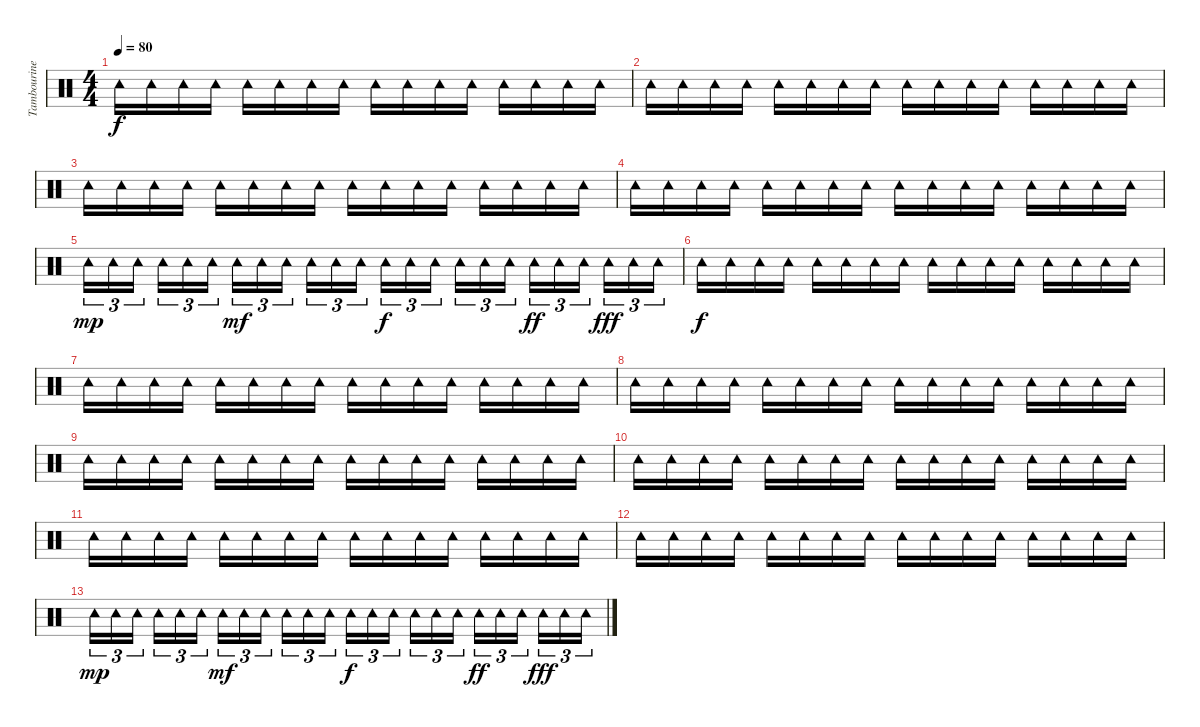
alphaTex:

\track ("Tambourine" "Tambourine") {instrument percussion}
\staff {score}
\articulation defaults
\ts (4 4)
\tempo 80
\clef neutral
\ks c "Tambourine (hit)".16{dy f} "Tambourine (hit)".16 "Tambourine (hit)".16 "Tambourine (hit)".16 "Tambourine (hit)".16 "Tambourine (hit)".16 "Tambourine (hit)".16 "Tambourine (hit)".16 "Tambourine (hit)".16 "Tambourine (hit)".16 "Tambourine (hit)".16 "Tambourine (hit)".16 "Tambourine (hit)".16 "Tambourine (hit)".16 "Tambourine (hit)".16 "Tambourine (hit)".16
|
"Tambourine (hit)".16 "Tambourine (hit)".16 "Tambourine (hit)".16 "Tambourine (hit)".16 "Tambourine (hit)".16 "Tambourine (hit)".16 "Tambourine (hit)".16 "Tambourine (hit)".16 "Tambourine (hit)".16 "Tambourine (hit)".16 "Tambourine (hit)".16 "Tambourine (hit)".16 "Tambourine (hit)".16 "Tambourine (hit)".16 "Tambourine (hit)".16 "Tambourine (hit)".16 |
"Tambourine (hit)".16 "Tambourine (hit)".16 "Tambourine (hit)".16 "Tambourine (hit)".16 "Tambourine (hit)".16 "Tambourine (hit)".16 "Tambourine (hit)".16 "Tambourine (hit)".16 "Tambourine (hit)".16 "Tambourine (hit)".16 "Tambourine (hit)".16 "Tambourine (hit)".16 "Tambourine (hit)".16 "Tambourine (hit)".16 "Tambourine (hit)".16 "Tambourine (hit)".16 |
"Tambourine (hit)".16 "Tambourine (hit)".16 "Tambourine (hit)".16 "Tambourine (hit)".16 "Tambourine (hit)".16 "Tambourine (hit)".16 "Tambourine (hit)".16 "Tambourine (hit)".16 "Tambourine (hit)".16 "Tambourine (hit)".16 "Tambourine (hit)".16 "Tambourine (hit)".16 "Tambourine (hit)".16 "Tambourine (hit)".16 "Tambourine (hit)".16 "Tambourine (hit)".16 |
"Tambourine (hit)".16{tu (3 2) dy mp} "Tambourine (hit)".16{tu (3 2)} "Tambourine (hit)".16{tu (3 2)} "Tambourine (hit)".16{tu (3 2)} "Tambourine (hit)".16{tu (3 2)} "Tambourine (hit)".16{tu (3 2)} "Tambourine (hit)".16{tu (3 2) dy mf} "Tambourine (hit)".16{tu (3 2)} "Tambourine (hit)".16{tu (3 2)} "Tambourine (hit)".16{tu (3 2)} "Tambourine (hit)".16{tu (3 2)} "Tambourine (hit)".16{tu (3 2)} "Tambourine (hit)".16{tu (3 2) dy f} "Tambourine (hit)".16{tu (3 2)} "Tambourine (hit)".16{tu (3 2)} "Tambourine (hit)".16{tu (3 2)} "Tambourine (hit)".16{tu (3 2)} "Tambourine (hit)".16{tu (3 2)} "Tambourine (hit)".16{tu (3 2) dy ff} "Tambourine (hit)".16{tu (3 2)} "Tambourine (hit)".16{tu (3 2)} "Tambourine (hit)".16{tu (3 2) dy fff} "Tambourine (hit)".16{tu (3 2)} "Tambourine (hit)".16{tu (3 2)} |
"Tambourine (hit)".16{dy f volume 10} "Tambourine (hit)".16 "Tambourine (hit)".16 "Tambourine (hit)".16 "Tambourine (hit)".16 "Tambourine (hit)".16 "Tambourine (hit)".16 "Tambourine (hit)".16 "Tambourine (hit)".16 "Tambourine (hit)".16 "Tambourine (hit)".16 "Tambourine (hit)".16 "Tambourine (hit)".16 "Tambourine (hit)".16 "Tambourine (hit)".16 "Tambourine (hit)".16 |
"Tambourine (hit)".16 "Tambourine (hit)".16 "Tambourine (hit)".16 "Tambourine (hit)".16 "Tambourine (hit)".16 "Tambourine (hit)".16 "Tambourine (hit)".16 "Tambourine (hit)".16 "Tambourine (hit)".16 "Tambourine (hit)".16 "Tambourine (hit)".16 "Tambourine (hit)".16 "Tambourine (hit)".16 "Tambourine (hit)".16 "Tambourine (hit)".16 "Tambourine (hit)".16 |
"Tambourine (hit)".16{volume 6} "Tambourine (hit)".16 "Tambourine (hit)".16 "Tambourine (hit)".16 "Tambourine (hit)".16 "Tambourine (hit)".16 "Tambourine (hit)".16 "Tambourine (hit)".16 "Tambourine (hit)".16 "Tambourine (hit)".16 "Tambourine (hit)".16 "Tambourine (hit)".16 "Tambourine (hit)".16 "Tambourine (hit)".16 "Tambourine (hit)".16 "Tambourine (hit)".16 |
"Tambourine (hit)".16 "Tambourine (hit)".16 "Tambourine (hit)".16 "Tambourine (hit)".16 "Tambourine (hit)".16 "Tambourine (hit)".16 "Tambourine (hit)".16 "Tambourine (hit)".16 "Tambourine (hit)".16 "Tambourine (hit)".16 "Tambourine (hit)".16 "Tambourine (hit)".16 "Tambourine (hit)".16 "Tambourine (hit)".16 "Tambourine (hit)".16 "Tambourine (hit)".16 |
"Tambourine (hit)".16{volume 3} "Tambourine (hit)".16 "Tambourine (hit)".16 "Tambourine (hit)".16 "Tambourine (hit)".16 "Tambourine (hit)".16 "Tambourine (hit)".16 "Tambourine (hit)".16 "Tambourine (hit)".16 "Tambourine (hit)".16 "Tambourine (hit)".16 "Tambourine (hit)".16 "Tambourine (hit)".16 "Tambourine (hit)".16 "Tambourine (hit)".16 "Tambourine (hit)".16 |
"Tambourine (hit)".16 "Tambourine (hit)".16 "Tambourine (hit)".16 "Tambourine (hit)".16 "Tambourine (hit)".16 "Tambourine (hit)".16 "Tambourine (hit)".16 "Tambourine (hit)".16 "Tambourine (hit)".16 "Tambourine (hit)".16 "Tambourine (hit)".16 "Tambourine (hit)".16 "Tambourine (hit)".16 "Tambourine (hit)".16 "Tambourine (hit)".16 "Tambourine (hit)".16 |
"Tambourine (hit)".16{volume 0} "Tambourine (hit)".16 "Tambourine (hit)".16 "Tambourine (hit)".16 "Tambourine (hit)".16 "Tambourine (hit)".16 "Tambourine (hit)".16 "Tambourine (hit)".16 "Tambourine (hit)".16 "Tambourine (hit)".16 "Tambourine (hit)".16 "Tambourine (hit)".16 "Tambourine (hit)".16 "Tambourine (hit)".16 "Tambourine (hit)".16 "Tambourine (hit)".16 |
"Tambourine (hit)".16{tu (3 2) dy mp} "Tambourine (hit)".16{tu (3 2)} "Tambourine (hit)".16{tu (3 2)} "Tambourine (hit)".16{tu (3 2)} "Tambourine (hit)".16{tu (3 2)} "Tambourine (hit)".16{tu (3 2)} "Tambourine (hit)".16{tu (3 2) dy mf} "Tambourine (hit)".16{tu (3 2)} "Tambourine (hit)".16{tu (3 2)} "Tambourine (hit)".16{tu (3 2)} "Tambourine (hit)".16{tu (3 2)} "Tambourine (hit)".16{tu (3 2)} "Tambourine (hit)".16{tu (3 2) dy f} "Tambourine (hit)".16{tu (3 2)} "Tambourine (hit)".16{tu (3 2)} "Tambourine (hit)".16{tu (3 2)} "Tambourine (hit)".16{tu (3 2)} "Tambourine (hit)".16{tu (3 2)} "Tambourine (hit)".16{tu (3 2) dy ff} "Tambourine (hit)".16{tu (3 2)} "Tambourine (hit)".16{tu (3 2)} "Tambourine (hit)".16{tu (3 2) dy fff} "Tambourine (hit)".16{tu (3 2)} "Tambourine (hit)".16{tu (3 2)}
